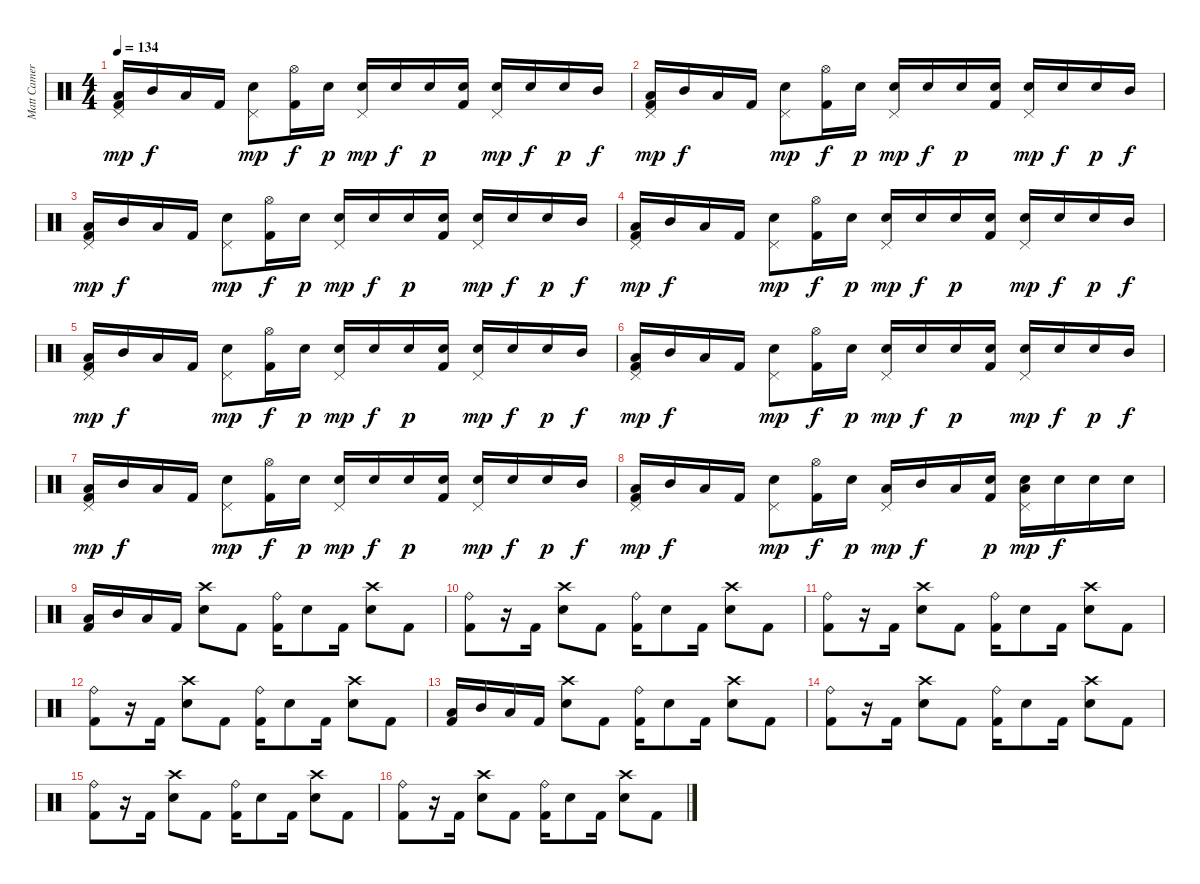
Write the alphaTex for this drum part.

\track ("Matt Cameron" "Matt Camer") {instrument percussion}
\staff {score}
\articulation defaults
\ts (4 4)
\tempo 134
\clef neutral
\ks c
("Low Tom (hit)" "Pedal Hi-Hat (hit)" "Kick (hit) 2").16{dy mp} "Mid Tom (hit)".16{dy f} "Low Tom (hit)".16 "Kick (hit) 2".16 ("Electric Snare (hit)" "Pedal Hi-Hat (hit)").8{dy mp} ("Hi-Hat (open)" "Kick (hit) 2").16{dy f} "Electric Snare (hit)".16{dy p} ("Electric Snare (hit)" "Pedal Hi-Hat (hit)").16{dy mp} "Electric Snare (hit)".16{dy f} "Electric Snare (hit)".16{dy p} ("Electric Snare (hit)" "Kick (hit) 2").16 ("Electric Snare (hit)" "Pedal Hi-Hat (hit)").16{dy mp} "Electric Snare (hit)".16{dy f} "Electric Snare (hit)".16{dy p} "Mid Tom (hit)".16{dy f} |
("Low Tom (hit)" "Pedal Hi-Hat (hit)" "Kick (hit) 2").16{dy mp} "Mid Tom (hit)".16{dy f} "Low Tom (hit)".16 "Kick (hit) 2".16 ("Electric Snare (hit)" "Pedal Hi-Hat (hit)").8{dy mp} ("Hi-Hat (open)" "Kick (hit) 2").16{dy f} "Electric Snare (hit)".16{dy p} ("Electric Snare (hit)" "Pedal Hi-Hat (hit)").16{dy mp} "Electric Snare (hit)".16{dy f} "Electric Snare (hit)".16{dy p} ("Electric Snare (hit)" "Kick (hit) 2").16 ("Electric Snare (hit)" "Pedal Hi-Hat (hit)").16{dy mp} "Electric Snare (hit)".16{dy f} "Electric Snare (hit)".16{dy p} "Mid Tom (hit)".16{dy f} |
("Low Tom (hit)" "Pedal Hi-Hat (hit)" "Kick (hit) 2").16{dy mp} "Mid Tom (hit)".16{dy f} "Low Tom (hit)".16 "Kick (hit) 2".16 ("Electric Snare (hit)" "Pedal Hi-Hat (hit)").8{dy mp} ("Hi-Hat (open)" "Kick (hit) 2").16{dy f} "Electric Snare (hit)".16{dy p} ("Electric Snare (hit)" "Pedal Hi-Hat (hit)").16{dy mp} "Electric Snare (hit)".16{dy f} "Electric Snare (hit)".16{dy p} ("Electric Snare (hit)" "Kick (hit) 2").16 ("Electric Snare (hit)" "Pedal Hi-Hat (hit)").16{dy mp} "Electric Snare (hit)".16{dy f} "Electric Snare (hit)".16{dy p} "Mid Tom (hit)".16{dy f} |
("Low Tom (hit)" "Pedal Hi-Hat (hit)" "Kick (hit) 2").16{dy mp} "Mid Tom (hit)".16{dy f} "Low Tom (hit)".16 "Kick (hit) 2".16 ("Electric Snare (hit)" "Pedal Hi-Hat (hit)").8{dy mp} ("Hi-Hat (open)" "Kick (hit) 2").16{dy f} "Electric Snare (hit)".16{dy p} ("Electric Snare (hit)" "Pedal Hi-Hat (hit)").16{dy mp} "Electric Snare (hit)".16{dy f} "Electric Snare (hit)".16{dy p} ("Electric Snare (hit)" "Kick (hit) 2").16 ("Electric Snare (hit)" "Pedal Hi-Hat (hit)").16{dy mp} "Electric Snare (hit)".16{dy f} "Electric Snare (hit)".16{dy p} "Mid Tom (hit)".16{dy f} |
("Low Tom (hit)" "Pedal Hi-Hat (hit)" "Kick (hit) 2").16{dy mp} "Mid Tom (hit)".16{dy f} "Low Tom (hit)".16 "Kick (hit) 2".16 ("Electric Snare (hit)" "Pedal Hi-Hat (hit)").8{dy mp} ("Hi-Hat (open)" "Kick (hit) 2").16{dy f} "Electric Snare (hit)".16{dy p} ("Electric Snare (hit)" "Pedal Hi-Hat (hit)").16{dy mp} "Electric Snare (hit)".16{dy f} "Electric Snare (hit)".16{dy p} ("Electric Snare (hit)" "Kick (hit) 2").16 ("Electric Snare (hit)" "Pedal Hi-Hat (hit)").16{dy mp} "Electric Snare (hit)".16{dy f} "Electric Snare (hit)".16{dy p} "Mid Tom (hit)".16{dy f} |
("Low Tom (hit)" "Pedal Hi-Hat (hit)" "Kick (hit) 2").16{dy mp} "Mid Tom (hit)".16{dy f} "Low Tom (hit)".16 "Kick (hit) 2".16 ("Electric Snare (hit)" "Pedal Hi-Hat (hit)").8{dy mp} ("Hi-Hat (open)" "Kick (hit) 2").16{dy f} "Electric Snare (hit)".16{dy p} ("Electric Snare (hit)" "Pedal Hi-Hat (hit)").16{dy mp} "Electric Snare (hit)".16{dy f} "Electric Snare (hit)".16{dy p} ("Electric Snare (hit)" "Kick (hit) 2").16 ("Electric Snare (hit)" "Pedal Hi-Hat (hit)").16{dy mp} "Electric Snare (hit)".16{dy f} "Electric Snare (hit)".16{dy p} "Mid Tom (hit)".16{dy f} |
("Low Tom (hit)" "Pedal Hi-Hat (hit)" "Kick (hit) 2").16{dy mp} "Mid Tom (hit)".16{dy f} "Low Tom (hit)".16 "Kick (hit) 2".16 ("Electric Snare (hit)" "Pedal Hi-Hat (hit)").8{dy mp} ("Hi-Hat (open)" "Kick (hit) 2").16{dy f} "Electric Snare (hit)".16{dy p} ("Electric Snare (hit)" "Pedal Hi-Hat (hit)").16{dy mp} "Electric Snare (hit)".16{dy f} "Electric Snare (hit)".16{dy p} ("Electric Snare (hit)" "Kick (hit) 2").16 ("Electric Snare (hit)" "Pedal Hi-Hat (hit)").16{dy mp} "Electric Snare (hit)".16{dy f} "Electric Snare (hit)".16{dy p} "Mid Tom (hit)".16{dy f} |
("Low Tom (hit)" "Pedal Hi-Hat (hit)" "Kick (hit) 2").16{dy mp} "Mid Tom (hit)".16{dy f} "Low Tom (hit)".16 "Kick (hit) 2".16 ("Electric Snare (hit)" "Pedal Hi-Hat (hit)").8{dy mp} ("Hi-Hat (open)" "Kick (hit) 2").16{dy f} "Electric Snare (hit)".16{dy p} ("Low Tom (hit)" "Pedal Hi-Hat (hit)").16{dy mp} "Mid Tom (hit)".16{dy f} "Low Tom (hit)".16 ("Electric Snare (hit)" "Kick (hit) 2").16{dy p} ("Low Tom (hit)" "Electric Snare (hit)" "Pedal Hi-Hat (hit)").16{dy mp} "Electric Snare (hit)".16{dy f} "Electric Snare (hit)".16 "Electric Snare (hit)".16 |
("Low Tom (hit)" "Kick (hit) 2").16 "Mid Tom (hit)".16 "Low Tom (hit)".16 "Kick (hit) 2".16 ("Crash high (hit)" "Electric Snare (hit)").8 "Kick (hit) 2".8 ("Ride (bell)" "Kick (hit) 2").16 "Electric Snare (hit)".8 "Kick (hit) 2".16 ("Crash high (hit)" "Electric Snare (hit)").8 "Kick (hit) 2".8 |
("Ride (bell)" "Kick (hit) 2").8 r.16 "Kick (hit) 2".16 ("Crash high (hit)" "Electric Snare (hit)").8 "Kick (hit) 2".8 ("Ride (bell)" "Kick (hit) 2").16 "Electric Snare (hit)".8 "Kick (hit) 2".16 ("Crash high (hit)" "Electric Snare (hit)").8 "Kick (hit) 2".8 |
("Ride (bell)" "Kick (hit) 2").8 r.16 "Kick (hit) 2".16 ("Crash high (hit)" "Electric Snare (hit)").8 "Kick (hit) 2".8 ("Ride (bell)" "Kick (hit) 2").16 "Electric Snare (hit)".8 "Kick (hit) 2".16 ("Crash high (hit)" "Electric Snare (hit)").8 "Kick (hit) 2".8 |
("Ride (bell)" "Kick (hit) 2").8 r.16 "Kick (hit) 2".16 ("Crash high (hit)" "Electric Snare (hit)").8 "Kick (hit) 2".8 ("Ride (bell)" "Kick (hit) 2").16 "Electric Snare (hit)".8 "Kick (hit) 2".16 ("Crash high (hit)" "Electric Snare (hit)").8 "Kick (hit) 2".8 |
("Low Tom (hit)" "Kick (hit) 2").16 "Mid Tom (hit)".16 "Low Tom (hit)".16 "Kick (hit) 2".16 ("Crash high (hit)" "Electric Snare (hit)").8 "Kick (hit) 2".8 ("Ride (bell)" "Kick (hit) 2").16 "Electric Snare (hit)".8 "Kick (hit) 2".16 ("Crash high (hit)" "Electric Snare (hit)").8 "Kick (hit) 2".8 |
("Ride (bell)" "Kick (hit) 2").8 r.16 "Kick (hit) 2".16 ("Crash high (hit)" "Electric Snare (hit)").8 "Kick (hit) 2".8 ("Ride (bell)" "Kick (hit) 2").16 "Electric Snare (hit)".8 "Kick (hit) 2".16 ("Crash high (hit)" "Electric Snare (hit)").8 "Kick (hit) 2".8 |
("Ride (bell)" "Kick (hit) 2").8 r.16 "Kick (hit) 2".16 ("Crash high (hit)" "Electric Snare (hit)").8 "Kick (hit) 2".8 ("Ride (bell)" "Kick (hit) 2").16 "Electric Snare (hit)".8 "Kick (hit) 2".16 ("Crash high (hit)" "Electric Snare (hit)").8 "Kick (hit) 2".8 |
("Ride (bell)" "Kick (hit) 2").8 r.16 "Kick (hit) 2".16 ("Crash high (hit)" "Electric Snare (hit)").8 "Kick (hit) 2".8 ("Ride (bell)" "Kick (hit) 2").16 "Electric Snare (hit)".8 "Kick (hit) 2".16 ("Crash high (hit)" "Electric Snare (hit)").8 "Kick (hit) 2".8
